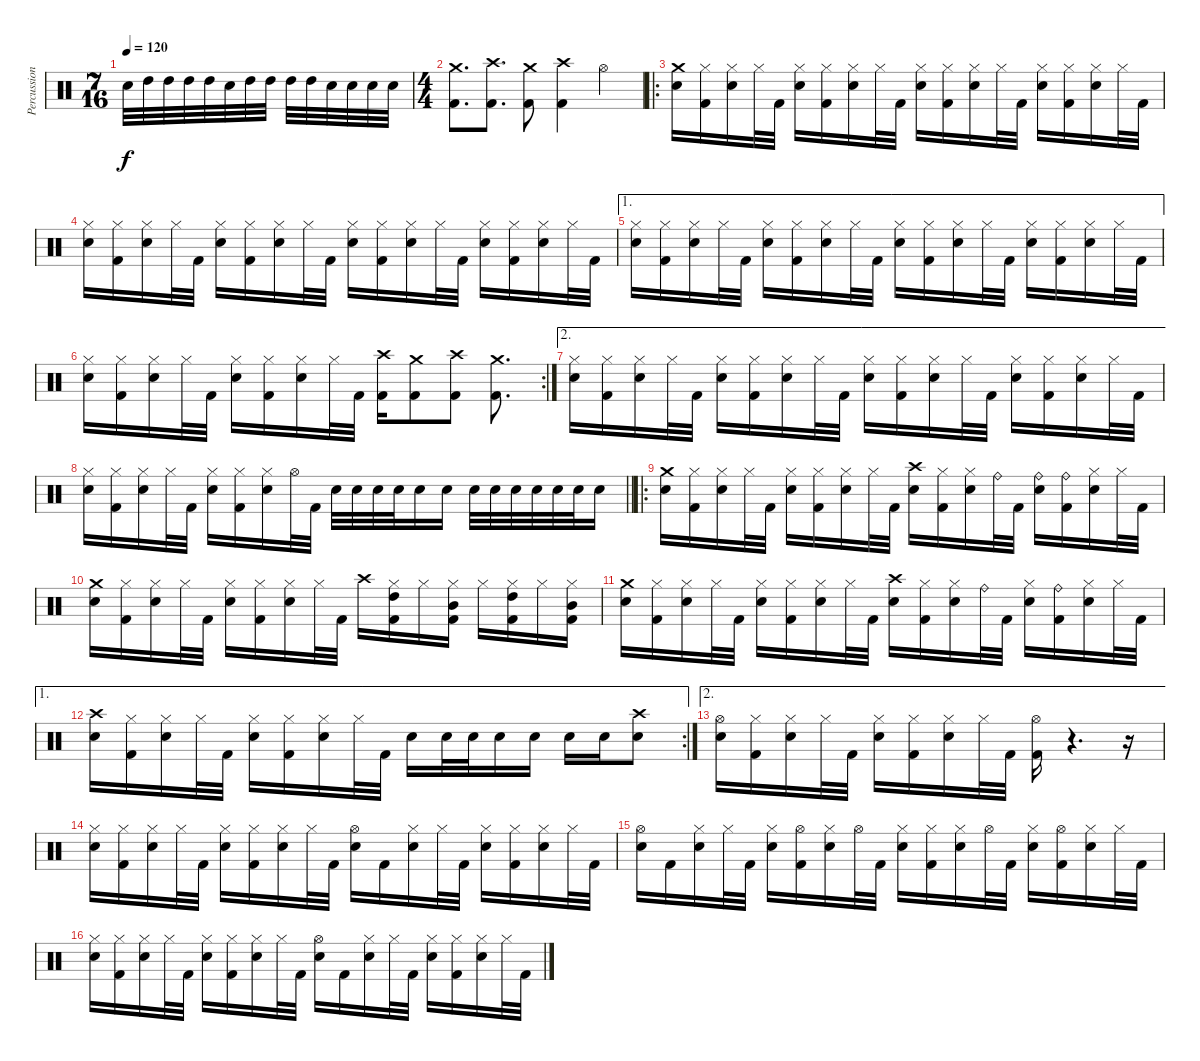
\track ("Percussion" "Percussion") {instrument percussion}
\staff {score}
\articulation defaults
\ts (7 16)
\tempo 120
\clef neutral
\ks c "Electric Snare (hit)".32{dy f} "High Tom (hit)".32 "High Tom (hit)".32 "High Tom (hit)".32 "High Tom (hit)".32 "Electric Snare (hit)".32 "High Tom (hit)".32 "High Tom (hit)".32 "High Tom (hit)".32 "High Tom (hit)".32 "Electric Snare (hit)".32 "Electric Snare (hit)".32 "Electric Snare (hit)".32 "Electric Snare (hit)".32
|
\ts (4 4)
("Crash medium (hit)" "Kick (hit) 2").8{d} ("Crash high (hit)" "Kick (hit) 2").8{d} ("Crash medium (hit)" "Kick (hit) 2").8 ("Crash high (hit)" "Kick (hit) 2").4 "Hi-Hat (open)".4 |
\ro
("Crash medium (hit)" "Electric Snare (hit)").16 ("Hi-Hat (closed)" "Kick (hit) 2").16 ("Hi-Hat (closed)" "Electric Snare (hit)").16 "Hi-Hat (closed)".32 "Kick (hit) 2".32 ("Hi-Hat (closed)" "Electric Snare (hit)").16 ("Hi-Hat (closed)" "Kick (hit) 2").16 ("Hi-Hat (closed)" "Electric Snare (hit)").16 "Hi-Hat (closed)".32 "Kick (hit) 2".32 ("Hi-Hat (closed)" "Electric Snare (hit)").16 ("Hi-Hat (closed)" "Kick (hit) 2").16 ("Hi-Hat (closed)" "Electric Snare (hit)").16 "Hi-Hat (closed)".32 "Kick (hit) 2".32 ("Hi-Hat (closed)" "Electric Snare (hit)").16 ("Hi-Hat (closed)" "Kick (hit) 2").16 ("Hi-Hat (closed)" "Electric Snare (hit)").16 "Hi-Hat (closed)".32 "Kick (hit) 2".32 |
("Hi-Hat (closed)" "Electric Snare (hit)").16 ("Hi-Hat (closed)" "Kick (hit) 2").16 ("Hi-Hat (closed)" "Electric Snare (hit)").16 "Hi-Hat (closed)".32 "Kick (hit) 2".32 ("Hi-Hat (closed)" "Electric Snare (hit)").16 ("Hi-Hat (closed)" "Kick (hit) 2").16 ("Hi-Hat (closed)" "Electric Snare (hit)").16 "Hi-Hat (closed)".32 "Kick (hit) 2".32 ("Hi-Hat (closed)" "Electric Snare (hit)").16 ("Hi-Hat (closed)" "Kick (hit) 2").16 ("Hi-Hat (closed)" "Electric Snare (hit)").16 "Hi-Hat (closed)".32 "Kick (hit) 2".32 ("Hi-Hat (closed)" "Electric Snare (hit)").16 ("Hi-Hat (closed)" "Kick (hit) 2").16 ("Hi-Hat (closed)" "Electric Snare (hit)").16 "Hi-Hat (closed)".32 "Kick (hit) 2".32 |
\ae 1
("Hi-Hat (closed)" "Electric Snare (hit)").16 ("Hi-Hat (closed)" "Kick (hit) 2").16 ("Hi-Hat (closed)" "Electric Snare (hit)").16 "Hi-Hat (closed)".32 "Kick (hit) 2".32 ("Hi-Hat (closed)" "Electric Snare (hit)").16 ("Hi-Hat (closed)" "Kick (hit) 2").16 ("Hi-Hat (closed)" "Electric Snare (hit)").16 "Hi-Hat (closed)".32 "Kick (hit) 2".32 ("Hi-Hat (closed)" "Electric Snare (hit)").16 ("Hi-Hat (closed)" "Kick (hit) 2").16 ("Hi-Hat (closed)" "Electric Snare (hit)").16 "Hi-Hat (closed)".32 "Kick (hit) 2".32 ("Hi-Hat (closed)" "Electric Snare (hit)").16 ("Hi-Hat (closed)" "Kick (hit) 2").16 ("Hi-Hat (closed)" "Electric Snare (hit)").16 "Hi-Hat (closed)".32 "Kick (hit) 2".32 |
\rc 2
("Hi-Hat (closed)" "Electric Snare (hit)").16 ("Hi-Hat (closed)" "Kick (hit) 2").16 ("Hi-Hat (closed)" "Electric Snare (hit)").16 "Hi-Hat (closed)".32 "Kick (hit) 2".32 ("Hi-Hat (closed)" "Electric Snare (hit)").16 ("Hi-Hat (closed)" "Kick (hit) 2").16 ("Hi-Hat (closed)" "Electric Snare (hit)").16 "Hi-Hat (closed)".32 "Kick (hit) 2".32 ("Crash high (hit)" "Kick (hit) 2").16 ("Crash medium (hit)" "Kick (hit) 2").8 ("Crash high (hit)" "Kick (hit) 2").8 ("Crash medium (hit)" "Kick (hit) 2").8{d} |
\ae 2
("Hi-Hat (closed)" "Electric Snare (hit)").16 ("Hi-Hat (closed)" "Kick (hit) 2").16 ("Hi-Hat (closed)" "Electric Snare (hit)").16 "Hi-Hat (closed)".32 "Kick (hit) 2".32 ("Hi-Hat (closed)" "Electric Snare (hit)").16 ("Hi-Hat (closed)" "Kick (hit) 2").16 ("Hi-Hat (closed)" "Electric Snare (hit)").16 "Hi-Hat (closed)".32 "Kick (hit) 2".32 ("Hi-Hat (closed)" "Electric Snare (hit)").16 ("Hi-Hat (closed)" "Kick (hit) 2").16 ("Hi-Hat (closed)" "Electric Snare (hit)").16 "Hi-Hat (closed)".32 "Kick (hit) 2".32 ("Hi-Hat (closed)" "Electric Snare (hit)").16 ("Hi-Hat (closed)" "Kick (hit) 2").16 ("Hi-Hat (closed)" "Electric Snare (hit)").16 "Hi-Hat (closed)".32 "Kick (hit) 2".32 |
\barLineRight lightlight
("Hi-Hat (closed)" "Electric Snare (hit)").16 ("Hi-Hat (closed)" "Kick (hit) 2").16 ("Hi-Hat (closed)" "Electric Snare (hit)").16 "Hi-Hat (closed)".32 "Kick (hit) 2".32 ("Hi-Hat (closed)" "Electric Snare (hit)").16 ("Hi-Hat (closed)" "Kick (hit) 2").16 ("Hi-Hat (closed)" "Electric Snare (hit)").16 "Hi-Hat (open)".32 "Kick (hit) 2".32 "Electric Snare (hit)".32 "Electric Snare (hit)".32 "Electric Snare (hit)".32 "Electric Snare (hit)".32 "Electric Snare (hit)".16 "Electric Snare (hit)".16 "Electric Snare (hit)".32 "Electric Snare (hit)".32 "Electric Snare (hit)".32 "Electric Snare (hit)".32 "Electric Snare (hit)".32 "Electric Snare (hit)".32 "Electric Snare (hit)".16 |
\ro
("Crash medium (hit)" "Electric Snare (hit)").16 ("Hi-Hat (closed)" "Kick (hit) 2").16 ("Hi-Hat (closed)" "Electric Snare (hit)").16 "Hi-Hat (closed)".32 "Kick (hit) 2".32 ("Hi-Hat (closed)" "Electric Snare (hit)").16 ("Hi-Hat (closed)" "Kick (hit) 2").16 ("Hi-Hat (closed)" "Electric Snare (hit)").16 "Hi-Hat (closed)".32 "Kick (hit) 2".32 ("Crash high (hit)" "Electric Snare (hit)").16 ("Hi-Hat (closed)" "Kick (hit) 2").16 ("Hi-Hat (closed)" "Electric Snare (hit)").16 "Ride (bell)".32 "Kick (hit) 2".32 ("Ride (bell)" "Electric Snare (hit)").16 ("Ride (bell)" "Kick (hit) 2").16 ("Hi-Hat (closed)" "Electric Snare (hit)").16 "Hi-Hat (closed)".32 "Kick (hit) 2".32 |
("Crash medium (hit)" "Electric Snare (hit)").16 ("Hi-Hat (closed)" "Kick (hit) 2").16 ("Hi-Hat (closed)" "Electric Snare (hit)").16 "Hi-Hat (closed)".32 "Kick (hit) 2".32 ("Hi-Hat (closed)" "Electric Snare (hit)").16 ("Hi-Hat (closed)" "Kick (hit) 2").16 ("Hi-Hat (closed)" "Electric Snare (hit)").16 "Hi-Hat (closed)".32 "Kick (hit) 2".32 "Crash high (hit)".16 ("Hi-Hat (closed)" "High Tom (hit)" "Kick (hit) 2").16 "Hi-Hat (closed)".16 ("Hi-Hat (closed)" "Mid Tom (hit)" "Kick (hit) 2").16 "Hi-Hat (closed)".16 ("Hi-Hat (closed)" "High Tom (hit)" "Kick (hit) 2").16 "Hi-Hat (closed)".16 ("Hi-Hat (closed)" "Mid Tom (hit)" "Kick (hit) 2").16 |
("Crash medium (hit)" "Electric Snare (hit)").16 ("Hi-Hat (closed)" "Kick (hit) 2").16 ("Hi-Hat (closed)" "Electric Snare (hit)").16 "Hi-Hat (closed)".32 "Kick (hit) 2".32 ("Hi-Hat (closed)" "Electric Snare (hit)").16 ("Hi-Hat (closed)" "Kick (hit) 2").16 ("Hi-Hat (closed)" "Electric Snare (hit)").16 "Hi-Hat (closed)".32 "Kick (hit) 2".32 ("Crash high (hit)" "Electric Snare (hit)").16 ("Hi-Hat (closed)" "Kick (hit) 2").16 ("Hi-Hat (closed)" "Electric Snare (hit)").16 "Ride (bell)".32 "Kick (hit) 2".32 ("Hi-Hat (closed)" "Electric Snare (hit)").16 ("Ride (bell)" "Kick (hit) 2").16 ("Hi-Hat (closed)" "Electric Snare (hit)").16 "Hi-Hat (closed)".32 "Kick (hit) 2".32 |
\ae 1
\rc 2
("Crash high (hit)" "Electric Snare (hit)").16 ("Hi-Hat (closed)" "Kick (hit) 2").16 ("Hi-Hat (closed)" "Electric Snare (hit)").16 "Hi-Hat (closed)".32 "Kick (hit) 2".32 ("Hi-Hat (closed)" "Electric Snare (hit)").16 ("Hi-Hat (closed)" "Kick (hit) 2").16 ("Hi-Hat (closed)" "Electric Snare (hit)").16 "Hi-Hat (closed)".32 "Kick (hit) 2".32 "Electric Snare (hit)".16 "Electric Snare (hit)".32 "Electric Snare (hit)".32 "Electric Snare (hit)".16 "Electric Snare (hit)".16 "Electric Snare (hit)".16 "Electric Snare (hit)".16 ("Crash high (hit)" "Electric Snare (hit)").8 |
\ae 2
("Hi-Hat (open)" "Electric Snare (hit)").16 ("Hi-Hat (closed)" "Kick (hit) 2").16 ("Hi-Hat (closed)" "Electric Snare (hit)").16 "Hi-Hat (closed)".32 "Kick (hit) 2".32 ("Hi-Hat (closed)" "Electric Snare (hit)").16 ("Hi-Hat (closed)" "Kick (hit) 2").16 ("Hi-Hat (closed)" "Electric Snare (hit)").16 "Hi-Hat (closed)".32 "Kick (hit) 2".32 ("Hi-Hat (open)" "Kick (hit) 2").16 r.4{d} r.16 |
("Hi-Hat (closed)" "Electric Snare (hit)").16 ("Hi-Hat (closed)" "Kick (hit) 2").16 ("Hi-Hat (closed)" "Electric Snare (hit)").16 "Hi-Hat (closed)".32 "Kick (hit) 2".32 ("Hi-Hat (closed)" "Electric Snare (hit)").16 ("Hi-Hat (closed)" "Kick (hit) 2").16 ("Hi-Hat (closed)" "Electric Snare (hit)").16 "Hi-Hat (closed)".32 "Kick (hit) 2".32 ("Hi-Hat (open)" "Electric Snare (hit)").16 "Kick (hit) 2".16 ("Hi-Hat (closed)" "Electric Snare (hit)").16 "Hi-Hat (closed)".32 "Kick (hit) 2".32 ("Hi-Hat (closed)" "Electric Snare (hit)").16 ("Hi-Hat (closed)" "Kick (hit) 2").16 ("Hi-Hat (closed)" "Electric Snare (hit)").16 "Hi-Hat (closed)".32 "Kick (hit) 2".32 |
("Hi-Hat (open)" "Electric Snare (hit)").16 "Kick (hit) 2".16 ("Hi-Hat (closed)" "Electric Snare (hit)").16 "Hi-Hat (closed)".32 "Kick (hit) 2".32 ("Hi-Hat (closed)" "Electric Snare (hit)").16 ("Hi-Hat (open)" "Kick (hit) 2").16 ("Hi-Hat (closed)" "Electric Snare (hit)").16 "Hi-Hat (open)".32 "Kick (hit) 2".32 ("Hi-Hat (closed)" "Electric Snare (hit)").16 ("Hi-Hat (closed)" "Kick (hit) 2").16 ("Hi-Hat (closed)" "Electric Snare (hit)").16 "Hi-Hat (open)".32 "Kick (hit) 2".32 ("Hi-Hat (closed)" "Electric Snare (hit)").16 ("Hi-Hat (open)" "Kick (hit) 2").16 ("Hi-Hat (closed)" "Electric Snare (hit)").16 "Hi-Hat (closed)".32 "Kick (hit) 2".32 |
("Hi-Hat (closed)" "Electric Snare (hit)").16 ("Hi-Hat (closed)" "Kick (hit) 2").16 ("Hi-Hat (closed)" "Electric Snare (hit)").16 "Hi-Hat (closed)".32 "Kick (hit) 2".32 ("Hi-Hat (closed)" "Electric Snare (hit)").16 ("Hi-Hat (closed)" "Kick (hit) 2").16 ("Hi-Hat (closed)" "Electric Snare (hit)").16 "Hi-Hat (closed)".32 "Kick (hit) 2".32 ("Hi-Hat (open)" "Electric Snare (hit)").16 "Kick (hit) 2".16 ("Hi-Hat (closed)" "Electric Snare (hit)").16 "Hi-Hat (closed)".32 "Kick (hit) 2".32 ("Hi-Hat (closed)" "Electric Snare (hit)").16 ("Hi-Hat (closed)" "Kick (hit) 2").16 ("Hi-Hat (closed)" "Electric Snare (hit)").16 "Hi-Hat (closed)".32 "Kick (hit) 2".32
